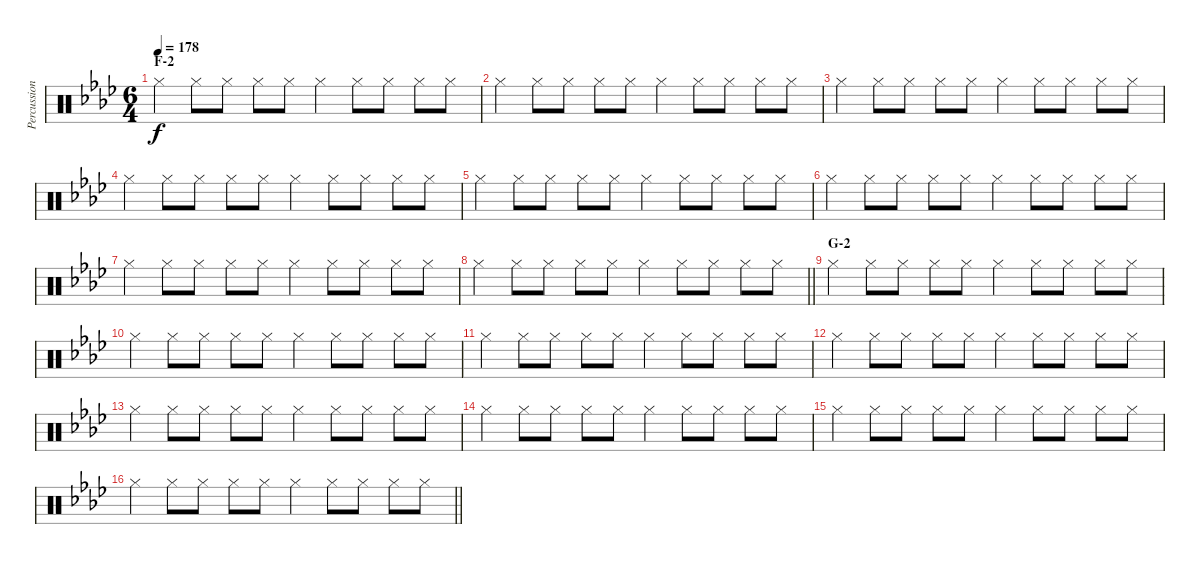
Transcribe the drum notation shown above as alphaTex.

\track ("Percussion" "Percussion") {instrument percussion}
\staff {score}
\articulation defaults
\ts (6 4)
\section ("" "F-2")
\tempo 178
\clef neutral
\ks ab "Hi-Hat (closed)".4{dy f} "Hi-Hat (closed)".8 "Hi-Hat (closed)".8 "Hi-Hat (closed)".8 "Hi-Hat (closed)".8 "Hi-Hat (closed)".4 "Hi-Hat (closed)".8 "Hi-Hat (closed)".8 "Hi-Hat (closed)".8 "Hi-Hat (closed)".8
|
"Hi-Hat (closed)".4 "Hi-Hat (closed)".8 "Hi-Hat (closed)".8 "Hi-Hat (closed)".8 "Hi-Hat (closed)".8 "Hi-Hat (closed)".4 "Hi-Hat (closed)".8 "Hi-Hat (closed)".8 "Hi-Hat (closed)".8 "Hi-Hat (closed)".8 |
"Hi-Hat (closed)".4 "Hi-Hat (closed)".8 "Hi-Hat (closed)".8 "Hi-Hat (closed)".8 "Hi-Hat (closed)".8 "Hi-Hat (closed)".4 "Hi-Hat (closed)".8 "Hi-Hat (closed)".8 "Hi-Hat (closed)".8 "Hi-Hat (closed)".8 |
"Hi-Hat (closed)".4 "Hi-Hat (closed)".8 "Hi-Hat (closed)".8 "Hi-Hat (closed)".8 "Hi-Hat (closed)".8 "Hi-Hat (closed)".4 "Hi-Hat (closed)".8 "Hi-Hat (closed)".8 "Hi-Hat (closed)".8 "Hi-Hat (closed)".8 |
"Hi-Hat (closed)".4 "Hi-Hat (closed)".8 "Hi-Hat (closed)".8 "Hi-Hat (closed)".8 "Hi-Hat (closed)".8 "Hi-Hat (closed)".4 "Hi-Hat (closed)".8 "Hi-Hat (closed)".8 "Hi-Hat (closed)".8 "Hi-Hat (closed)".8 |
"Hi-Hat (closed)".4 "Hi-Hat (closed)".8 "Hi-Hat (closed)".8 "Hi-Hat (closed)".8 "Hi-Hat (closed)".8 "Hi-Hat (closed)".4 "Hi-Hat (closed)".8 "Hi-Hat (closed)".8 "Hi-Hat (closed)".8 "Hi-Hat (closed)".8 |
"Hi-Hat (closed)".4 "Hi-Hat (closed)".8 "Hi-Hat (closed)".8 "Hi-Hat (closed)".8 "Hi-Hat (closed)".8 "Hi-Hat (closed)".4 "Hi-Hat (closed)".8 "Hi-Hat (closed)".8 "Hi-Hat (closed)".8 "Hi-Hat (closed)".8 |
\barLineRight lightlight "Hi-Hat (closed)".4 "Hi-Hat (closed)".8 "Hi-Hat (closed)".8 "Hi-Hat (closed)".8 "Hi-Hat (closed)".8 "Hi-Hat (closed)".4 "Hi-Hat (closed)".8 "Hi-Hat (closed)".8 "Hi-Hat (closed)".8 "Hi-Hat (closed)".8
|
\section ("" "G-2")
"Hi-Hat (closed)".4 "Hi-Hat (closed)".8 "Hi-Hat (closed)".8 "Hi-Hat (closed)".8 "Hi-Hat (closed)".8 "Hi-Hat (closed)".4 "Hi-Hat (closed)".8 "Hi-Hat (closed)".8 "Hi-Hat (closed)".8 "Hi-Hat (closed)".8 |
"Hi-Hat (closed)".4 "Hi-Hat (closed)".8 "Hi-Hat (closed)".8 "Hi-Hat (closed)".8 "Hi-Hat (closed)".8 "Hi-Hat (closed)".4 "Hi-Hat (closed)".8 "Hi-Hat (closed)".8 "Hi-Hat (closed)".8 "Hi-Hat (closed)".8 |
"Hi-Hat (closed)".4 "Hi-Hat (closed)".8 "Hi-Hat (closed)".8 "Hi-Hat (closed)".8 "Hi-Hat (closed)".8 "Hi-Hat (closed)".4 "Hi-Hat (closed)".8 "Hi-Hat (closed)".8 "Hi-Hat (closed)".8 "Hi-Hat (closed)".8 |
"Hi-Hat (closed)".4 "Hi-Hat (closed)".8 "Hi-Hat (closed)".8 "Hi-Hat (closed)".8 "Hi-Hat (closed)".8 "Hi-Hat (closed)".4 "Hi-Hat (closed)".8 "Hi-Hat (closed)".8 "Hi-Hat (closed)".8 "Hi-Hat (closed)".8 |
"Hi-Hat (closed)".4 "Hi-Hat (closed)".8 "Hi-Hat (closed)".8 "Hi-Hat (closed)".8 "Hi-Hat (closed)".8 "Hi-Hat (closed)".4 "Hi-Hat (closed)".8 "Hi-Hat (closed)".8 "Hi-Hat (closed)".8 "Hi-Hat (closed)".8 |
"Hi-Hat (closed)".4 "Hi-Hat (closed)".8 "Hi-Hat (closed)".8 "Hi-Hat (closed)".8 "Hi-Hat (closed)".8 "Hi-Hat (closed)".4 "Hi-Hat (closed)".8 "Hi-Hat (closed)".8 "Hi-Hat (closed)".8 "Hi-Hat (closed)".8 |
"Hi-Hat (closed)".4 "Hi-Hat (closed)".8 "Hi-Hat (closed)".8 "Hi-Hat (closed)".8 "Hi-Hat (closed)".8 "Hi-Hat (closed)".4 "Hi-Hat (closed)".8 "Hi-Hat (closed)".8 "Hi-Hat (closed)".8 "Hi-Hat (closed)".8 |
\barLineRight lightlight "Hi-Hat (closed)".4 "Hi-Hat (closed)".8 "Hi-Hat (closed)".8 "Hi-Hat (closed)".8 "Hi-Hat (closed)".8 "Hi-Hat (closed)".4 "Hi-Hat (closed)".8 "Hi-Hat (closed)".8 "Hi-Hat (closed)".8 "Hi-Hat (closed)".8
